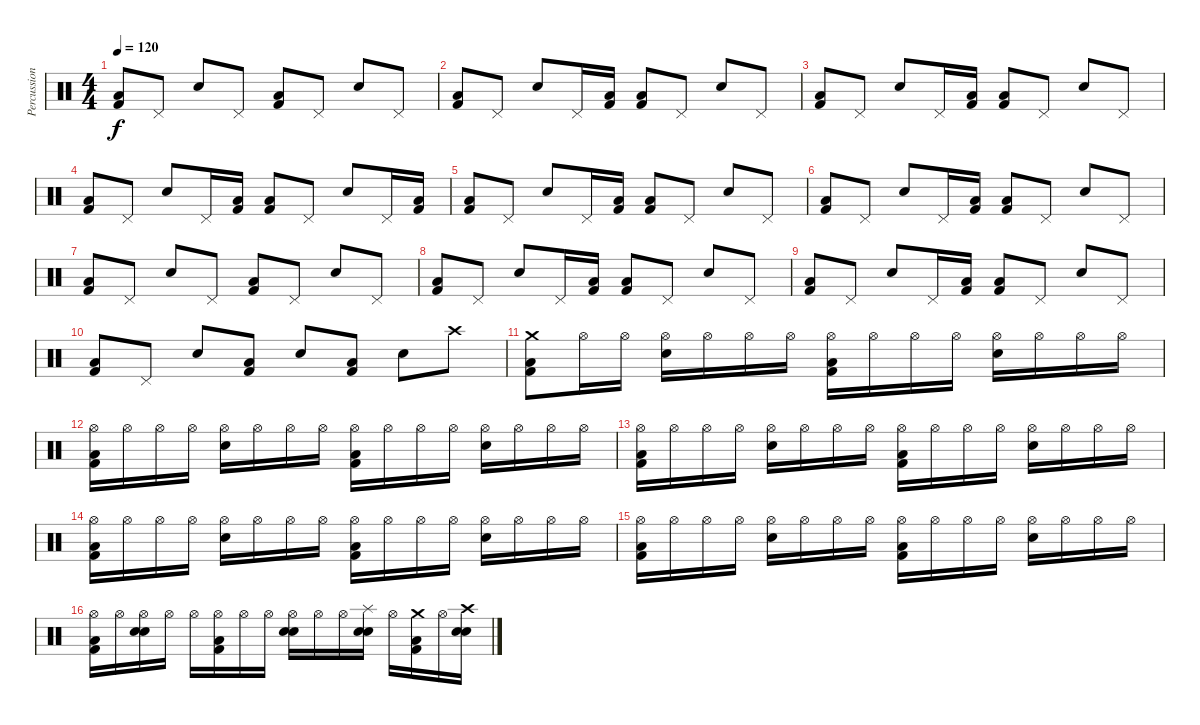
\track ("Percussions" "Percussion") {instrument percussion}
\staff {score}
\articulation defaults
\ts (4 4)
\tempo 120
\clef neutral
\ks c
("Kick (hit) 2" "Low Floor Tom (hit)").8{dy f} "Pedal Hi-Hat (hit)".8 "Snare (hit) 2".8 "Pedal Hi-Hat (hit)".8 ("Kick (hit) 2" "Low Floor Tom (hit)").8 "Pedal Hi-Hat (hit)".8 "Snare (hit) 2".8 "Pedal Hi-Hat (hit)".8 |
("Kick (hit) 2" "Low Floor Tom (hit)").8 "Pedal Hi-Hat (hit)".8 "Snare (hit) 2".8 "Pedal Hi-Hat (hit)".16 ("Kick (hit) 2" "Low Floor Tom (hit)").16 ("Kick (hit) 2" "Low Floor Tom (hit)").8 "Pedal Hi-Hat (hit)".8 "Snare (hit) 2".8 "Pedal Hi-Hat (hit)".8 |
("Kick (hit) 2" "Low Floor Tom (hit)").8 "Pedal Hi-Hat (hit)".8 "Snare (hit) 2".8 "Pedal Hi-Hat (hit)".16 ("Kick (hit) 2" "Low Floor Tom (hit)").16 ("Kick (hit) 2" "Low Floor Tom (hit)").8 "Pedal Hi-Hat (hit)".8 "Snare (hit) 2".8 "Pedal Hi-Hat (hit)".8 |
("Kick (hit) 2" "Low Floor Tom (hit)").8 "Pedal Hi-Hat (hit)".8 "Snare (hit) 2".8 "Pedal Hi-Hat (hit)".16 ("Kick (hit) 2" "Low Floor Tom (hit)").16 ("Kick (hit) 2" "Low Floor Tom (hit)").8 "Pedal Hi-Hat (hit)".8 "Snare (hit) 2".8 "Pedal Hi-Hat (hit)".16 ("Kick (hit) 2" "Low Floor Tom (hit)").16 |
("Kick (hit) 2" "Low Floor Tom (hit)").8 "Pedal Hi-Hat (hit)".8 "Snare (hit) 2".8 "Pedal Hi-Hat (hit)".16 ("Kick (hit) 2" "Low Floor Tom (hit)").16 ("Kick (hit) 2" "Low Floor Tom (hit)").8 "Pedal Hi-Hat (hit)".8 "Snare (hit) 2".8 "Pedal Hi-Hat (hit)".8 |
("Kick (hit) 2" "Low Floor Tom (hit)").8 "Pedal Hi-Hat (hit)".8 "Snare (hit) 2".8 "Pedal Hi-Hat (hit)".16 ("Kick (hit) 2" "Low Floor Tom (hit)").16 ("Kick (hit) 2" "Low Floor Tom (hit)").8 "Pedal Hi-Hat (hit)".8 "Snare (hit) 2".8 "Pedal Hi-Hat (hit)".8 |
("Kick (hit) 2" "Low Floor Tom (hit)").8 "Pedal Hi-Hat (hit)".8 "Snare (hit) 2".8 "Pedal Hi-Hat (hit)".8 ("Kick (hit) 2" "Low Floor Tom (hit)").8 "Pedal Hi-Hat (hit)".8 "Snare (hit) 2".8 "Pedal Hi-Hat (hit)".8 |
("Kick (hit) 2" "Low Floor Tom (hit)").8 "Pedal Hi-Hat (hit)".8 "Snare (hit) 2".8 "Pedal Hi-Hat (hit)".16 ("Kick (hit) 2" "Low Floor Tom (hit)").16 ("Kick (hit) 2" "Low Floor Tom (hit)").8 "Pedal Hi-Hat (hit)".8 "Snare (hit) 2".8 "Pedal Hi-Hat (hit)".8 |
("Kick (hit) 2" "Low Floor Tom (hit)").8 "Pedal Hi-Hat (hit)".8 "Snare (hit) 2".8 "Pedal Hi-Hat (hit)".16 ("Kick (hit) 2" "Low Floor Tom (hit)").16 ("Kick (hit) 2" "Low Floor Tom (hit)").8 "Pedal Hi-Hat (hit)".8 "Snare (hit) 2".8 "Pedal Hi-Hat (hit)".8 |
("Kick (hit) 2" "Low Floor Tom (hit)").8 "Pedal Hi-Hat (hit)".8 "Snare (hit) 2".8 ("Kick (hit) 2" "Low Floor Tom (hit)").8 "Snare (hit) 2".8 ("Kick (hit) 2" "Low Floor Tom (hit)").8 "Snare (hit) 2".8 "Crash high (hit)".8 |
("Crash medium (hit)" "Kick (hit) 2" "Low Floor Tom (hit)").8 "Hi-Hat (open)".16 "Hi-Hat (open)".16 ("Hi-Hat (open)" "Snare (hit) 2").16 "Hi-Hat (open)".16 "Hi-Hat (open)".16 "Hi-Hat (open)".16 ("Hi-Hat (open)" "Kick (hit) 2" "Low Floor Tom (hit)").16 "Hi-Hat (open)".16 "Hi-Hat (open)".16 "Hi-Hat (open)".16 ("Hi-Hat (open)" "Snare (hit) 2").16 "Hi-Hat (open)".16 "Hi-Hat (open)".16 "Hi-Hat (open)".16 |
("Hi-Hat (open)" "Kick (hit) 2" "Low Floor Tom (hit)").16 "Hi-Hat (open)".16 "Hi-Hat (open)".16 "Hi-Hat (open)".16 ("Hi-Hat (open)" "Snare (hit) 2").16 "Hi-Hat (open)".16 "Hi-Hat (open)".16 "Hi-Hat (open)".16 ("Hi-Hat (open)" "Kick (hit) 2" "Low Floor Tom (hit)").16 "Hi-Hat (open)".16 "Hi-Hat (open)".16 "Hi-Hat (open)".16 ("Hi-Hat (open)" "Snare (hit) 2").16 "Hi-Hat (open)".16 "Hi-Hat (open)".16 "Hi-Hat (open)".16 |
("Hi-Hat (open)" "Kick (hit) 2" "Low Floor Tom (hit)").16 "Hi-Hat (open)".16 "Hi-Hat (open)".16 "Hi-Hat (open)".16 ("Hi-Hat (open)" "Snare (hit) 2").16 "Hi-Hat (open)".16 "Hi-Hat (open)".16 "Hi-Hat (open)".16 ("Hi-Hat (open)" "Kick (hit) 2" "Low Floor Tom (hit)").16 "Hi-Hat (open)".16 "Hi-Hat (open)".16 "Hi-Hat (open)".16 ("Hi-Hat (open)" "Snare (hit) 2").16 "Hi-Hat (open)".16 "Hi-Hat (open)".16 "Hi-Hat (open)".16 |
("Hi-Hat (open)" "Kick (hit) 2" "Low Floor Tom (hit)").16 "Hi-Hat (open)".16 "Hi-Hat (open)".16 "Hi-Hat (open)".16 ("Hi-Hat (open)" "Snare (hit) 2").16 "Hi-Hat (open)".16 "Hi-Hat (open)".16 "Hi-Hat (open)".16 ("Hi-Hat (open)" "Kick (hit) 2" "Low Floor Tom (hit)").16 "Hi-Hat (open)".16 "Hi-Hat (open)".16 "Hi-Hat (open)".16 ("Hi-Hat (open)" "Snare (hit) 2").16 "Hi-Hat (open)".16 "Hi-Hat (open)".16 "Hi-Hat (open)".16 |
("Hi-Hat (open)" "Kick (hit) 2" "Low Floor Tom (hit)").16 "Hi-Hat (open)".16 "Hi-Hat (open)".16 "Hi-Hat (open)".16 ("Hi-Hat (open)" "Snare (hit) 2").16 "Hi-Hat (open)".16 "Hi-Hat (open)".16 "Hi-Hat (open)".16 ("Hi-Hat (open)" "Kick (hit) 2" "Low Floor Tom (hit)").16 "Hi-Hat (open)".16 "Hi-Hat (open)".16 "Hi-Hat (open)".16 ("Hi-Hat (open)" "Snare (hit) 2").16 "Hi-Hat (open)".16 "Hi-Hat (open)".16 "Hi-Hat (open)".16 |
("Hi-Hat (open)" "Kick (hit) 2" "Low Floor Tom (hit)").16 "Hi-Hat (open)".16 ("Hi-Hat (open)" "Snare (hit) 2" "Electric Snare (hit)").16 "Hi-Hat (open)".16 "Hi-Hat (open)".16 ("Hi-Hat (open)" "Kick (hit) 2" "Low Floor Tom (hit)").16 "Hi-Hat (open)".16 "Hi-Hat (open)".16 ("Hi-Hat (open)" "Snare (hit) 2" "Electric Snare (hit)").16 "Hi-Hat (open)".16 "Hi-Hat (open)".16 ("Splash (hit)" "Snare (hit) 2" "Electric Snare (hit)").16 "Hi-Hat (open)".16 ("Crash medium (hit)" "Kick (hit) 2" "Low Floor Tom (hit)").16 "Hi-Hat (open)".16 ("Crash high (hit)" "Snare (hit) 2" "Electric Snare (hit)").16
